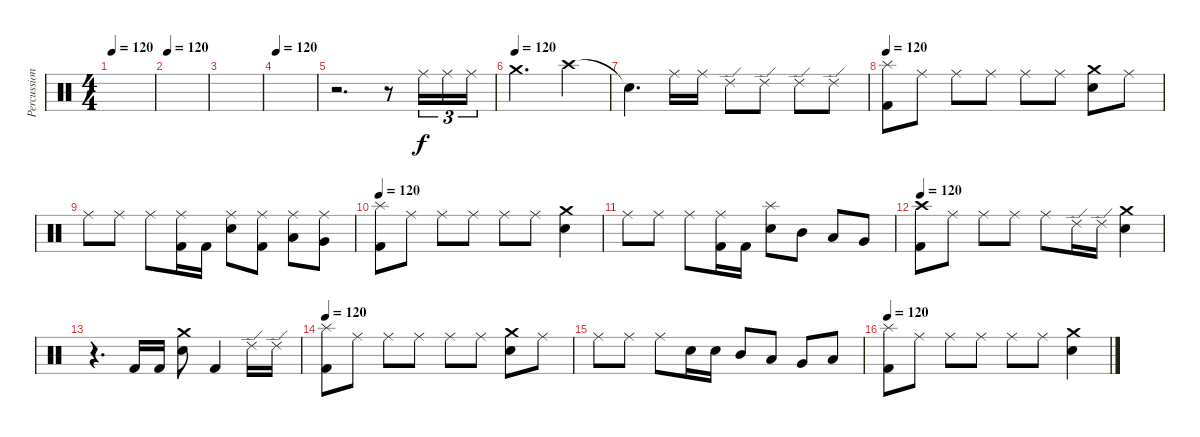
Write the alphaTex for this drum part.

\track ("Percussion" "Percussion") {instrument percussion}
\staff {score}
\articulation defaults
\ts (4 4)
\tempo 120
\clef neutral
\ks c
|
\tempo 120
|
|
\tempo 120
|
r.2{d} r.8 "Ride (middle)".16{tu (3 2)} "Ride (middle)".16{tu (3 2)} "Ride (middle)".16{tu (3 2)} |
\tempo (120)
"Crash medium (hit)".2{d} "Crash high (hit)".4 |
"Snare (hit)"{t}.4{d} "Ride (middle)".16 "Ride (middle)".16 "Ride (edge) 2".8 "Ride (edge) 2".8 "Ride (edge) 2".8 "Ride (edge) 2".8 |
\tempo 120
("Kick (hit) 2" "Splash (hit)").8 "Ride (middle)".8 "Ride (middle)".8 "Ride (middle)".8 "Ride (middle)".8 "Ride (middle)".8 ("Electric Snare (hit)" "Crash medium (hit)").8 "Ride (middle)".8 |
"Ride (middle)".8 "Ride (middle)".8 "Ride (middle)".8 ("Kick (hit) 2" "Ride (middle)").16 "Kick (hit) 2".16 ("Electric Snare (hit)" "Ride (middle)").8 ("Kick (hit) 2" "Ride (middle)").8 ("Low Tom (hit)" "Ride (middle)").8 ("Very Low Tom (hit)" "Ride (middle)").8 |
\tempo 120
("Kick (hit) 2" "Splash (hit)").8 "Ride (middle)".8 "Ride (middle)".8 "Ride (middle)".8 "Ride (middle)".8 "Ride (middle)".8 ("Electric Snare (hit)" "Crash medium (hit)").4 |
"Ride (middle)".8 "Ride (middle)".8 "Ride (middle)".8 ("Kick (hit) 2" "Ride (middle)").16 "Kick (hit) 2".16 ("Electric Snare (hit)" "Splash (hit)").8 "Mid Tom (hit)".8 "Low Tom (hit)".8 "Very Low Tom (hit)".8 |
\tempo 120
("Kick (hit) 2" "Crash high (hit)").8 "Ride (middle)".8 "Ride (middle)".8 "Ride (middle)".8 "Ride (middle)".8 "Ride (edge) 2".16 "Ride (edge) 2".16 ("Electric Snare (hit)" "Crash medium (hit)").4 |
r.4{d} "Kick (hit) 2".16 "Kick (hit) 2".16 ("Electric Snare (hit)" "Crash medium (hit)").8 "Kick (hit) 2".4 "Ride (edge) 2".16 "Ride (edge) 2".16 |
\tempo 120
("Kick (hit) 2" "Splash (hit)").8 "Ride (middle)".8 "Ride (middle)".8 "Ride (middle)".8 "Ride (middle)".8 "Ride (middle)".8 ("Electric Snare (hit)" "Crash medium (hit)").8 "Ride (middle)".8 |
"Ride (middle)".8 "Ride (middle)".8 "Ride (middle)".8 "Electric Snare (hit)".16 "Electric Snare (hit)".16 "Mid Tom (hit)".8 "Low Tom (hit)".8 "Very Low Tom (hit)".8 "Low Floor Tom (hit)".8 |
\tempo 120
("Kick (hit) 2" "Splash (hit)").8{volume 10} "Ride (middle)".8 "Ride (middle)".8 "Ride (middle)".8 "Ride (middle)".8 "Ride (middle)".8 ("Electric Snare (hit)" "Crash medium (hit)").4
